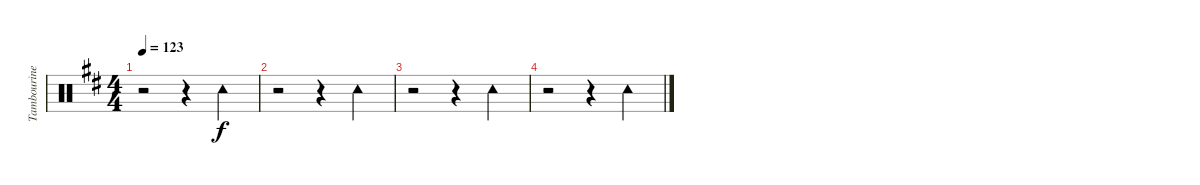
\track ("Tambourine" "Tambourine") {instrument percussion}
\staff {score}
\articulation defaults
\ts (4 4)
\tempo 123
\clef neutral
\ks d
r.2{dy f} r.4 "Tambourine (hit)".4 |
r.2 r.4 "Tambourine (hit)".4 |
r.2 r.4 "Tambourine (hit)".4 |
r.2 r.4 "Tambourine (hit)".4
